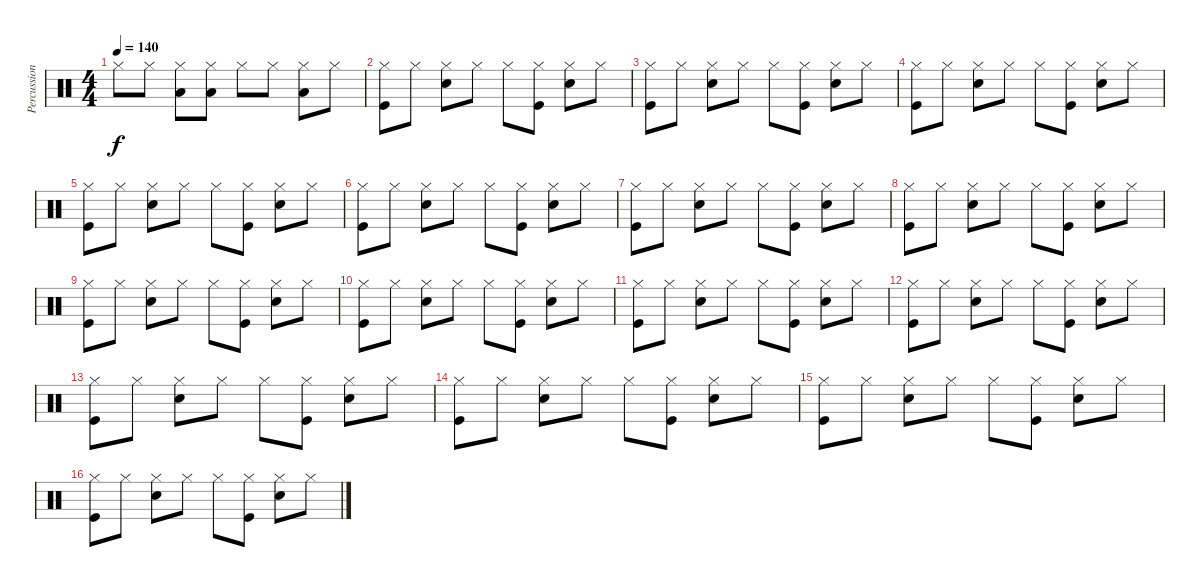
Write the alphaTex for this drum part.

\track ("Percussion" "Percussion") {instrument percussion}
\staff {score}
\articulation defaults
\ts (4 4)
\tempo 140
\clef neutral
\ks c "Hi-Hat (closed)".8{dy f} "Hi-Hat (closed)".8
("Hi-Hat (closed)" "Low Tom (hit)").8 ("Hi-Hat (closed)" "Low Tom (hit)").8 "Hi-Hat (closed)".8 "Hi-Hat (closed)".8 ("Hi-Hat (closed)" "Low Tom (hit)").8 "Hi-Hat (closed)".8 |
("Hi-Hat (closed)" "Kick (hit)").8 "Hi-Hat (closed)".8 ("Hi-Hat (closed)" "Snare (hit) 2").8 "Hi-Hat (closed)".8 "Hi-Hat (closed)".8 ("Hi-Hat (closed)" "Kick (hit)").8 ("Hi-Hat (closed)" "Snare (hit) 2").8 "Hi-Hat (closed)".8 |
("Hi-Hat (closed)" "Kick (hit)").8 "Hi-Hat (closed)".8 ("Hi-Hat (closed)" "Snare (hit) 2").8 "Hi-Hat (closed)".8 "Hi-Hat (closed)".8 ("Hi-Hat (closed)" "Kick (hit)").8 ("Hi-Hat (closed)" "Snare (hit) 2").8 "Hi-Hat (closed)".8 |
("Hi-Hat (closed)" "Kick (hit)").8 "Hi-Hat (closed)".8 ("Hi-Hat (closed)" "Snare (hit) 2").8 "Hi-Hat (closed)".8 "Hi-Hat (closed)".8 ("Hi-Hat (closed)" "Kick (hit)").8 ("Hi-Hat (closed)" "Snare (hit) 2").8 "Hi-Hat (closed)".8 |
("Hi-Hat (closed)" "Kick (hit)").8 "Hi-Hat (closed)".8 ("Hi-Hat (closed)" "Snare (hit) 2").8 "Hi-Hat (closed)".8 "Hi-Hat (closed)".8 ("Hi-Hat (closed)" "Kick (hit)").8 ("Hi-Hat (closed)" "Snare (hit) 2").8 "Hi-Hat (closed)".8 |
("Hi-Hat (closed)" "Kick (hit)").8 "Hi-Hat (closed)".8 ("Hi-Hat (closed)" "Snare (hit) 2").8 "Hi-Hat (closed)".8 "Hi-Hat (closed)".8 ("Hi-Hat (closed)" "Kick (hit)").8 ("Hi-Hat (closed)" "Snare (hit) 2").8 "Hi-Hat (closed)".8 |
("Hi-Hat (closed)" "Kick (hit)").8 "Hi-Hat (closed)".8 ("Hi-Hat (closed)" "Snare (hit) 2").8 "Hi-Hat (closed)".8 "Hi-Hat (closed)".8 ("Hi-Hat (closed)" "Kick (hit)").8 ("Hi-Hat (closed)" "Snare (hit) 2").8 "Hi-Hat (closed)".8 |
("Hi-Hat (closed)" "Kick (hit)").8 "Hi-Hat (closed)".8 ("Hi-Hat (closed)" "Snare (hit) 2").8 "Hi-Hat (closed)".8 "Hi-Hat (closed)".8 ("Hi-Hat (closed)" "Kick (hit)").8 ("Hi-Hat (closed)" "Snare (hit) 2").8 "Hi-Hat (closed)".8 |
("Hi-Hat (closed)" "Kick (hit)").8 "Hi-Hat (closed)".8 ("Hi-Hat (closed)" "Snare (hit) 2").8 "Hi-Hat (closed)".8 "Hi-Hat (closed)".8 ("Hi-Hat (closed)" "Kick (hit)").8 ("Hi-Hat (closed)" "Snare (hit) 2").8 "Hi-Hat (closed)".8 |
("Hi-Hat (closed)" "Kick (hit)").8 "Hi-Hat (closed)".8 ("Hi-Hat (closed)" "Snare (hit) 2").8 "Hi-Hat (closed)".8 "Hi-Hat (closed)".8 ("Hi-Hat (closed)" "Kick (hit)").8 ("Hi-Hat (closed)" "Snare (hit) 2").8 "Hi-Hat (closed)".8 |
("Hi-Hat (closed)" "Kick (hit)").8 "Hi-Hat (closed)".8 ("Hi-Hat (closed)" "Snare (hit) 2").8 "Hi-Hat (closed)".8 "Hi-Hat (closed)".8 ("Hi-Hat (closed)" "Kick (hit)").8 ("Hi-Hat (closed)" "Snare (hit) 2").8 "Hi-Hat (closed)".8 |
("Hi-Hat (closed)" "Kick (hit)").8 "Hi-Hat (closed)".8 ("Hi-Hat (closed)" "Snare (hit) 2").8 "Hi-Hat (closed)".8 "Hi-Hat (closed)".8 ("Hi-Hat (closed)" "Kick (hit)").8 ("Hi-Hat (closed)" "Snare (hit) 2").8 "Hi-Hat (closed)".8 |
("Hi-Hat (closed)" "Kick (hit)").8 "Hi-Hat (closed)".8 ("Hi-Hat (closed)" "Snare (hit) 2").8 "Hi-Hat (closed)".8 "Hi-Hat (closed)".8 ("Hi-Hat (closed)" "Kick (hit)").8 ("Hi-Hat (closed)" "Snare (hit) 2").8 "Hi-Hat (closed)".8 |
("Hi-Hat (closed)" "Kick (hit)").8 "Hi-Hat (closed)".8 ("Hi-Hat (closed)" "Snare (hit) 2").8 "Hi-Hat (closed)".8 "Hi-Hat (closed)".8 ("Hi-Hat (closed)" "Kick (hit)").8 ("Hi-Hat (closed)" "Snare (hit) 2").8 "Hi-Hat (closed)".8 |
("Hi-Hat (closed)" "Kick (hit)").8 "Hi-Hat (closed)".8 ("Hi-Hat (closed)" "Snare (hit) 2").8 "Hi-Hat (closed)".8 "Hi-Hat (closed)".8 ("Hi-Hat (closed)" "Kick (hit)").8 ("Hi-Hat (closed)" "Snare (hit) 2").8 "Hi-Hat (closed)".8 |
("Hi-Hat (closed)" "Kick (hit)").8 "Hi-Hat (closed)".8 ("Hi-Hat (closed)" "Snare (hit) 2").8 "Hi-Hat (closed)".8 "Hi-Hat (closed)".8 ("Hi-Hat (closed)" "Kick (hit)").8 ("Hi-Hat (closed)" "Snare (hit) 2").8 "Hi-Hat (closed)".8
